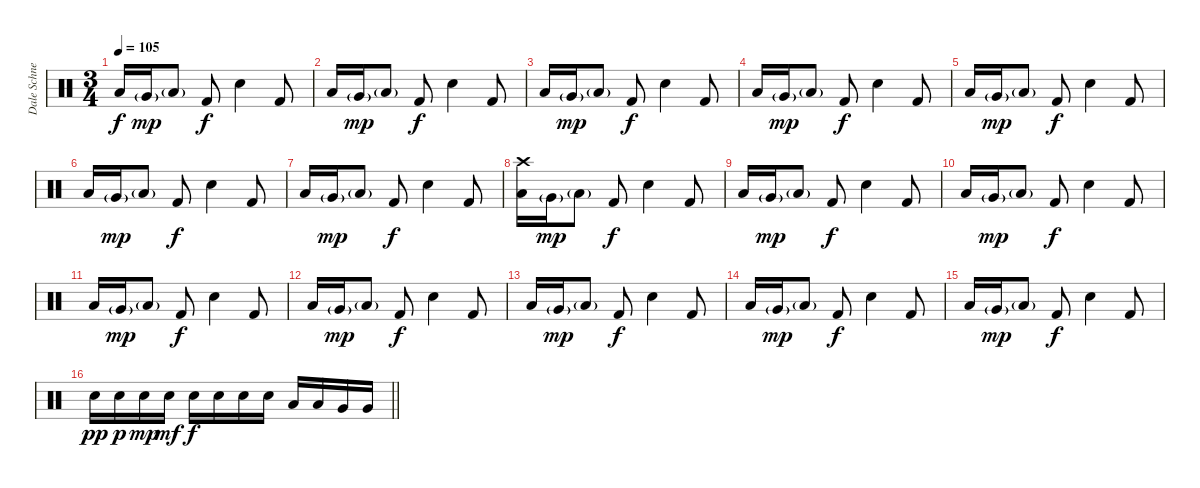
\track ("Dale Schnettler (Drums)" "Dale Schne") {instrument percussion}
\staff {score}
\articulation defaults
\ts (3 4)
\tempo 105
\clef neutral
\ks c "Low Tom (hit)".16{dy f} "Very Low Tom (hit)"{g}.16{dy mp} "Low Floor Tom (hit)"{g}.8 "Kick (hit) 2".8{dy f} "Electric Snare (hit)".4 "Kick (hit) 2".8
|
"Low Tom (hit)".16 "Very Low Tom (hit)"{g}.16{dy mp} "Low Floor Tom (hit)"{g}.8 "Kick (hit) 2".8{dy f} "Electric Snare (hit)".4 "Kick (hit) 2".8 |
"Low Tom (hit)".16 "Very Low Tom (hit)"{g}.16{dy mp} "Low Floor Tom (hit)"{g}.8 "Kick (hit) 2".8{dy f} "Electric Snare (hit)".4 "Kick (hit) 2".8 |
"Low Tom (hit)".16 "Very Low Tom (hit)"{g}.16{dy mp} "Low Floor Tom (hit)"{g}.8 "Kick (hit) 2".8{dy f} "Electric Snare (hit)".4 "Kick (hit) 2".8 |
"Low Tom (hit)".16 "Very Low Tom (hit)"{g}.16{dy mp} "Low Floor Tom (hit)"{g}.8 "Kick (hit) 2".8{dy f} "Electric Snare (hit)".4 "Kick (hit) 2".8 |
"Low Tom (hit)".16 "Very Low Tom (hit)"{g}.16{dy mp} "Low Floor Tom (hit)"{g}.8 "Kick (hit) 2".8{dy f} "Electric Snare (hit)".4 "Kick (hit) 2".8 |
"Low Tom (hit)".16 "Very Low Tom (hit)"{g}.16{dy mp} "Low Floor Tom (hit)"{g}.8 "Kick (hit) 2".8{dy f} "Electric Snare (hit)".4 "Kick (hit) 2".8 |
("Crash high (hit)" "Low Tom (hit)").16 "Very Low Tom (hit)"{g}.16{dy mp} "Low Floor Tom (hit)"{g}.8 "Kick (hit) 2".8{dy f} "Electric Snare (hit)".4 "Kick (hit) 2".8 |
"Low Tom (hit)".16 "Very Low Tom (hit)"{g}.16{dy mp} "Low Floor Tom (hit)"{g}.8 "Kick (hit) 2".8{dy f} "Electric Snare (hit)".4 "Kick (hit) 2".8 |
"Low Tom (hit)".16 "Very Low Tom (hit)"{g}.16{dy mp} "Low Floor Tom (hit)"{g}.8 "Kick (hit) 2".8{dy f} "Electric Snare (hit)".4 "Kick (hit) 2".8 |
"Low Tom (hit)".16 "Very Low Tom (hit)"{g}.16{dy mp} "Low Floor Tom (hit)"{g}.8 "Kick (hit) 2".8{dy f} "Electric Snare (hit)".4 "Kick (hit) 2".8 |
"Low Tom (hit)".16 "Very Low Tom (hit)"{g}.16{dy mp} "Low Floor Tom (hit)"{g}.8 "Kick (hit) 2".8{dy f} "Electric Snare (hit)".4 "Kick (hit) 2".8 |
"Low Tom (hit)".16 "Very Low Tom (hit)"{g}.16{dy mp} "Low Floor Tom (hit)"{g}.8 "Kick (hit) 2".8{dy f} "Electric Snare (hit)".4 "Kick (hit) 2".8 |
"Low Tom (hit)".16 "Very Low Tom (hit)"{g}.16{dy mp} "Low Floor Tom (hit)"{g}.8 "Kick (hit) 2".8{dy f} "Electric Snare (hit)".4 "Kick (hit) 2".8 |
"Low Tom (hit)".16 "Very Low Tom (hit)"{g}.16{dy mp} "Low Floor Tom (hit)"{g}.8 "Kick (hit) 2".8{dy f} "Electric Snare (hit)".4 "Kick (hit) 2".8 |
\barLineRight lightlight "Electric Snare (hit)".16{dy pp} "Electric Snare (hit)".16{dy p} "Electric Snare (hit)".16{dy mp} "Electric Snare (hit)".16{dy mf} "Electric Snare (hit)".16{dy f} "Electric Snare (hit)".16 "Electric Snare (hit)".16 "Electric Snare (hit)".16 "Low Tom (hit)".16 "Low Tom (hit)".16 "Very Low Tom (hit)".16 "Very Low Tom (hit)".16
